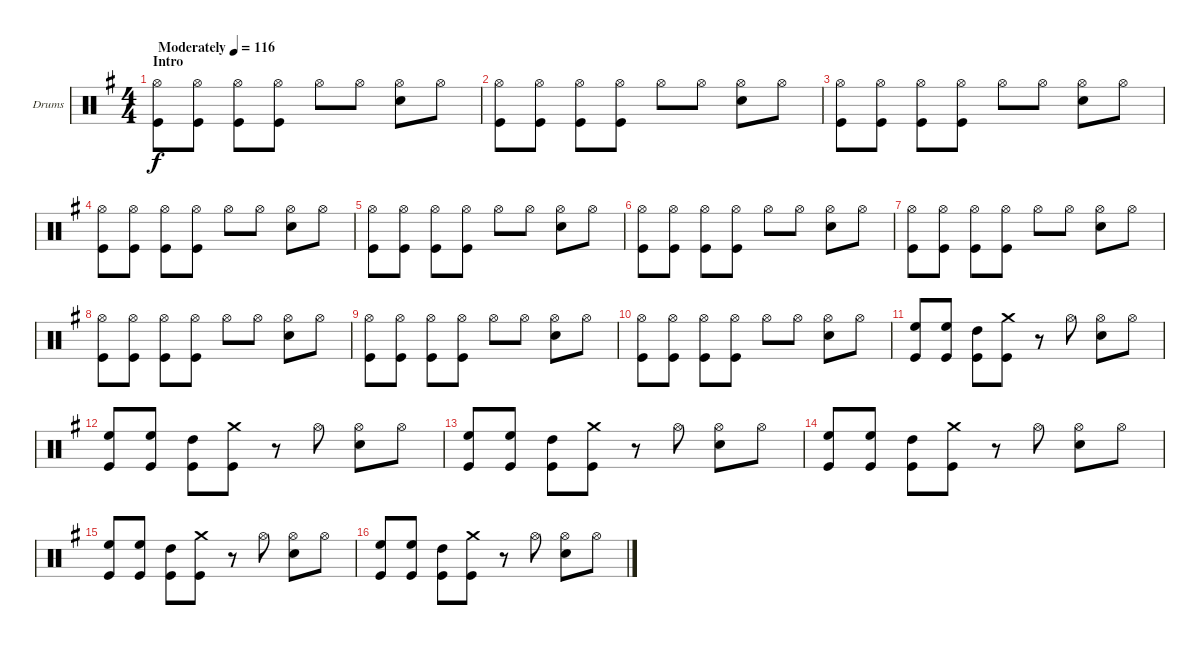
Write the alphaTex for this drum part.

\defaultSystemsLayout 4
\bracketExtendMode groupsimilarinstruments
\firstSystemTrackNameOrientation horizontal
\otherSystemsTrackNameOrientation horizontal
\track ("Drumkit" "Drums") {instrument percussion}
\staff {score}
\articulation defaults
\ts (4 4)
\section ("" "Intro")
\tempo (116 "Moderately")
\clef neutral
\scale
1.05675
\ks g
("Hi-Hat (open)" "Kick (hit)").8{dy f} ("Hi-Hat (open)" "Kick (hit)").8 ("Hi-Hat (open)" "Kick (hit)").8 ("Hi-Hat (open)" "Kick (hit)").8 "Hi-Hat (open)".8 "Hi-Hat (open)".8 ("Hi-Hat (open)" "Snare (hit) 2").8 "Hi-Hat (open)".8 |
\scale
0.943253 ("Hi-Hat (open)" "Kick (hit)").8 ("Hi-Hat (open)" "Kick (hit)").8 ("Hi-Hat (open)" "Kick (hit)").8 ("Hi-Hat (open)" "Kick (hit)").8 "Hi-Hat (open)".8 "Hi-Hat (open)".8 ("Hi-Hat (open)" "Snare (hit) 2").8 "Hi-Hat (open)".8 |
\scale
1.02648 ("Hi-Hat (open)" "Kick (hit)").8 ("Hi-Hat (open)" "Kick (hit)").8 ("Hi-Hat (open)" "Kick (hit)").8 ("Hi-Hat (open)" "Kick (hit)").8 "Hi-Hat (open)".8 "Hi-Hat (open)".8 ("Hi-Hat (open)" "Snare (hit) 2").8 "Hi-Hat (open)".8 |
\scale
0.973518 ("Hi-Hat (open)" "Kick (hit)").8 ("Hi-Hat (open)" "Kick (hit)").8 ("Hi-Hat (open)" "Kick (hit)").8 ("Hi-Hat (open)" "Kick (hit)").8 "Hi-Hat (open)".8 "Hi-Hat (open)".8 ("Hi-Hat (open)" "Snare (hit) 2").8 "Hi-Hat (open)".8 |
\scale
1.02648 ("Hi-Hat (open)" "Kick (hit)").8 ("Hi-Hat (open)" "Kick (hit)").8 ("Hi-Hat (open)" "Kick (hit)").8 ("Hi-Hat (open)" "Kick (hit)").8 "Hi-Hat (open)".8 "Hi-Hat (open)".8 ("Hi-Hat (open)" "Snare (hit) 2").8 "Hi-Hat (open)".8 |
\scale
0.973518 ("Hi-Hat (open)" "Kick (hit)").8 ("Hi-Hat (open)" "Kick (hit)").8 ("Hi-Hat (open)" "Kick (hit)").8 ("Hi-Hat (open)" "Kick (hit)").8 "Hi-Hat (open)".8 "Hi-Hat (open)".8 ("Hi-Hat (open)" "Snare (hit) 2").8 "Hi-Hat (open)".8 |
\scale
1.02648 ("Hi-Hat (open)" "Kick (hit)").8 ("Hi-Hat (open)" "Kick (hit)").8 ("Hi-Hat (open)" "Kick (hit)").8 ("Hi-Hat (open)" "Kick (hit)").8 "Hi-Hat (open)".8 "Hi-Hat (open)".8 ("Hi-Hat (open)" "Snare (hit) 2").8 "Hi-Hat (open)".8 |
\scale
0.973518 ("Hi-Hat (open)" "Kick (hit)").8 ("Hi-Hat (open)" "Kick (hit)").8 ("Hi-Hat (open)" "Kick (hit)").8 ("Hi-Hat (open)" "Kick (hit)").8 "Hi-Hat (open)".8 "Hi-Hat (open)".8 ("Hi-Hat (open)" "Snare (hit) 2").8 "Hi-Hat (open)".8 |
\scale
1.02648 ("Hi-Hat (open)" "Kick (hit)").8 ("Hi-Hat (open)" "Kick (hit)").8 ("Hi-Hat (open)" "Kick (hit)").8 ("Hi-Hat (open)" "Kick (hit)").8 "Hi-Hat (open)".8 "Hi-Hat (open)".8 ("Hi-Hat (open)" "Snare (hit) 2").8 "Hi-Hat (open)".8 |
\scale
0.973518 ("Hi-Hat (open)" "Kick (hit)").8 ("Hi-Hat (open)" "Kick (hit)").8 ("Hi-Hat (open)" "Kick (hit)").8 ("Hi-Hat (open)" "Kick (hit)").8 "Hi-Hat (open)".8 "Hi-Hat (open)".8 ("Hi-Hat (open)" "Snare (hit) 2").8 "Hi-Hat (open)".8 |
\scale
1.02648 ("High Floor Tom (hit)" "Kick (hit)").8 ("High Floor Tom (hit)" "Kick (hit)").8 ("High Tom (hit)" "Kick (hit)").8 ("Crash medium (hit)" "Kick (hit)").8 r.8 "Hi-Hat (open)".8 ("Hi-Hat (open)" "Snare (hit) 2").8 "Hi-Hat (open)".8 |
\scale
0.973518 ("High Floor Tom (hit)" "Kick (hit)").8 ("High Floor Tom (hit)" "Kick (hit)").8 ("High Tom (hit)" "Kick (hit)").8 ("Crash medium (hit)" "Kick (hit)").8 r.8 "Hi-Hat (open)".8 ("Hi-Hat (open)" "Snare (hit) 2").8 "Hi-Hat (open)".8 |
\scale
1.02648 ("High Floor Tom (hit)" "Kick (hit)").8 ("High Floor Tom (hit)" "Kick (hit)").8 ("High Tom (hit)" "Kick (hit)").8 ("Crash medium (hit)" "Kick (hit)").8 r.8 "Hi-Hat (open)".8 ("Hi-Hat (open)" "Snare (hit) 2").8 "Hi-Hat (open)".8 |
\scale
0.973518 ("High Floor Tom (hit)" "Kick (hit)").8 ("High Floor Tom (hit)" "Kick (hit)").8 ("High Tom (hit)" "Kick (hit)").8 ("Crash medium (hit)" "Kick (hit)").8 r.8 "Hi-Hat (open)".8 ("Hi-Hat (open)" "Snare (hit) 2").8 "Hi-Hat (open)".8 |
\scale
1.02648 ("High Floor Tom (hit)" "Kick (hit)").8 ("High Floor Tom (hit)" "Kick (hit)").8 ("High Tom (hit)" "Kick (hit)").8 ("Crash medium (hit)" "Kick (hit)").8 r.8 "Hi-Hat (open)".8 ("Hi-Hat (open)" "Snare (hit) 2").8 "Hi-Hat (open)".8 |
\scale
0.973518 ("High Floor Tom (hit)" "Kick (hit)").8 ("High Floor Tom (hit)" "Kick (hit)").8 ("High Tom (hit)" "Kick (hit)").8 ("Crash medium (hit)" "Kick (hit)").8 r.8 "Hi-Hat (open)".8 ("Hi-Hat (open)" "Snare (hit) 2").8 "Hi-Hat (open)".8
